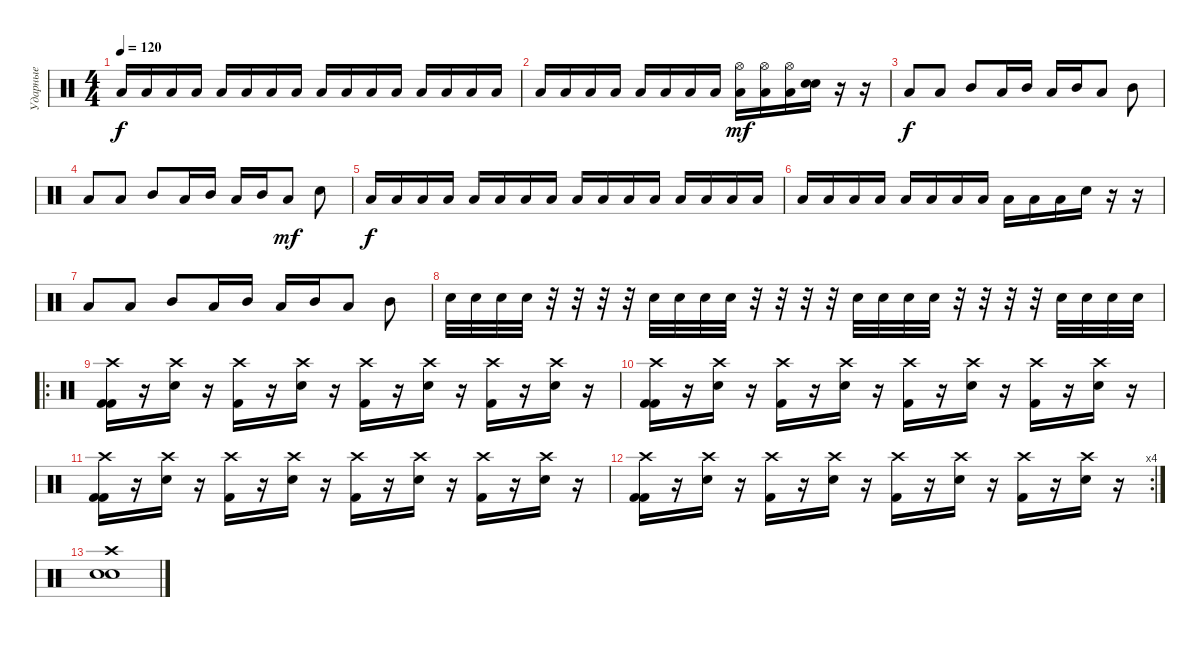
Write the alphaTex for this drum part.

\track ("Ударные" "Ударные") {instrument percussion}
\staff {score}
\articulation defaults
\ts (4 4)
\tempo 120
\clef neutral
\ks c "Low Tom (hit)".16{dy f} "Low Tom (hit)".16 "Low Tom (hit)".16 "Low Tom (hit)".16 "Low Tom (hit)".16 "Low Tom (hit)".16 "Low Tom (hit)".16 "Low Tom (hit)".16 "Low Tom (hit)".16 "Low Tom (hit)".16 "Low Tom (hit)".16 "Low Tom (hit)".16 "Low Tom (hit)".16 "Low Tom (hit)".16 "Low Tom (hit)".16 "Low Tom (hit)".16
|
"Low Tom (hit)".16 "Low Tom (hit)".16 "Low Tom (hit)".16 "Low Tom (hit)".16 "Low Tom (hit)".16 "Low Tom (hit)".16 "Low Tom (hit)".16 "Low Tom (hit)".16 ("Hi-Hat (open)" "Low Tom (hit)").16{dy mf} ("Hi-Hat (open)" "Low Tom (hit)").16 ("Hi-Hat (open)" "Low Tom (hit)").16 ("Electric Snare (hit)" "Snare (hit) 2").16 r.16 r.16 |
"Low Tom (hit)".8{dy f} "Low Tom (hit)".8 "Mid Tom (hit)".8 "Low Tom (hit)".16 "Mid Tom (hit)".16 "Low Tom (hit)".16 "Mid Tom (hit)".16 "Low Tom (hit)".8 "Mid Tom (hit)".8 |
"Low Tom (hit)".8 "Low Tom (hit)".8 "Mid Tom (hit)".8 "Low Tom (hit)".16 "Mid Tom (hit)".16 "Low Tom (hit)".16 "Mid Tom (hit)".16 "Low Tom (hit)".8{dy mf} "Electric Snare (hit)".8 |
"Low Tom (hit)".16{dy f} "Low Tom (hit)".16 "Low Tom (hit)".16 "Low Tom (hit)".16 "Low Tom (hit)".16 "Low Tom (hit)".16 "Low Tom (hit)".16 "Low Tom (hit)".16 "Low Tom (hit)".16 "Low Tom (hit)".16 "Low Tom (hit)".16 "Low Tom (hit)".16 "Low Tom (hit)".16 "Low Tom (hit)".16 "Low Tom (hit)".16 "Low Tom (hit)".16 |
"Low Tom (hit)".16 "Low Tom (hit)".16 "Low Tom (hit)".16 "Low Tom (hit)".16 "Low Tom (hit)".16 "Low Tom (hit)".16 "Low Tom (hit)".16 "Low Tom (hit)".16 "Low Tom (hit)".16 "Low Tom (hit)".16 "Low Tom (hit)".16 "Electric Snare (hit)".16 r.16 r.16 |
"Low Tom (hit)".8 "Low Tom (hit)".8 "Mid Tom (hit)".8 "Low Tom (hit)".16 "Mid Tom (hit)".16 "Low Tom (hit)".16 "Mid Tom (hit)".16 "Low Tom (hit)".8 "Mid Tom (hit)".8 |
"Electric Snare (hit)".32 "Electric Snare (hit)".32 "Electric Snare (hit)".32 "Electric Snare (hit)".32 r.32 r.32 r.32 r.32 "Electric Snare (hit)".32 "Electric Snare (hit)".32 "Electric Snare (hit)".32 "Electric Snare (hit)".32 r.32 r.32 r.32 r.32 "Electric Snare (hit)".32 "Electric Snare (hit)".32 "Electric Snare (hit)".32 "Electric Snare (hit)".32 r.32 r.32 r.32 r.32 "Electric Snare (hit)".32 "Electric Snare (hit)".32 "Electric Snare (hit)".32 "Electric Snare (hit)".32{volume 15} |
\ro
("Crash high (hit)" "Kick (hit) 2" "Kick (hit) 2").16 r.16 ("Crash high (hit)" "Electric Snare (hit)").16 r.16 ("Crash high (hit)" "Kick (hit) 2").16 r.16 ("Crash high (hit)" "Electric Snare (hit)").16 r.16 ("Crash high (hit)" "Kick (hit) 2").16 r.16 ("Crash high (hit)" "Electric Snare (hit)").16 r.16 ("Crash high (hit)" "Kick (hit) 2").16 r.16 ("Crash high (hit)" "Electric Snare (hit)").16 r.16 |
("Crash high (hit)" "Kick (hit) 2" "Kick (hit) 2").16 r.16 ("Crash high (hit)" "Electric Snare (hit)").16 r.16 ("Crash high (hit)" "Kick (hit) 2").16 r.16 ("Crash high (hit)" "Electric Snare (hit)").16 r.16 ("Crash high (hit)" "Kick (hit) 2").16 r.16 ("Crash high (hit)" "Electric Snare (hit)").16 r.16 ("Crash high (hit)" "Kick (hit) 2").16 r.16 ("Crash high (hit)" "Electric Snare (hit)").16 r.16 |
("Crash high (hit)" "Kick (hit) 2" "Kick (hit) 2").16 r.16 ("Crash high (hit)" "Electric Snare (hit)").16 r.16 ("Crash high (hit)" "Kick (hit) 2").16 r.16 ("Crash high (hit)" "Electric Snare (hit)").16 r.16 ("Crash high (hit)" "Kick (hit) 2").16 r.16 ("Crash high (hit)" "Electric Snare (hit)").16 r.16 ("Crash high (hit)" "Kick (hit) 2").16 r.16 ("Crash high (hit)" "Electric Snare (hit)").16 r.16 |
\rc 4
("Crash high (hit)" "Kick (hit) 2" "Kick (hit) 2").16 r.16 ("Crash high (hit)" "Electric Snare (hit)").16 r.16 ("Crash high (hit)" "Kick (hit) 2").16 r.16 ("Crash high (hit)" "Electric Snare (hit)").16 r.16 ("Crash high (hit)" "Kick (hit) 2").16 r.16 ("Crash high (hit)" "Electric Snare (hit)").16 r.16 ("Crash high (hit)" "Kick (hit) 2").16 r.16 ("Crash high (hit)" "Electric Snare (hit)").16 r.16 |
("Snare (hit) 2" "Electric Snare (hit)" "Crash high (hit)").1
